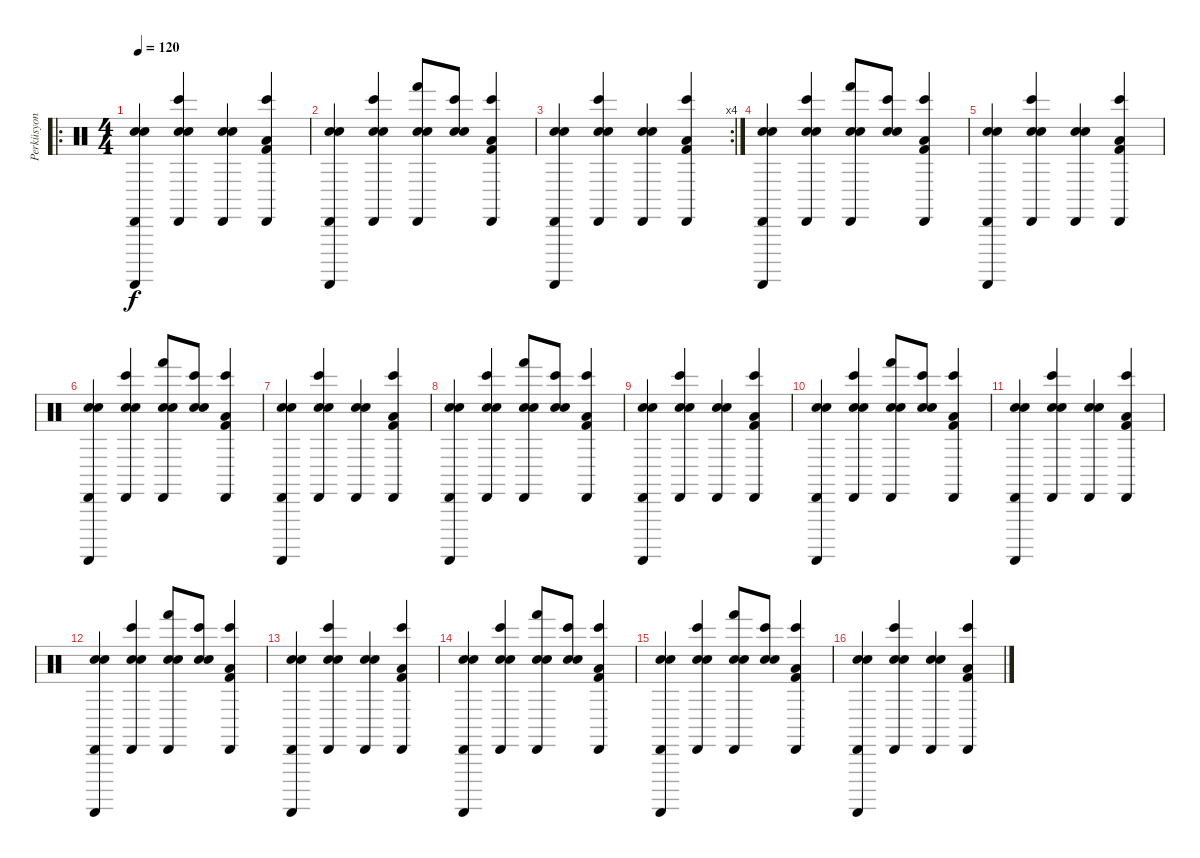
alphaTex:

\track ("Perküsyon" "Perküsyon") {instrument percussion}
\staff {score}
\articulation defaults
\ro
\ts (4 4)
\tempo 120
\clef neutral
\ks c
("Cabasa (hit)" "Guiro (scrap-return)" "Snare (hit) 2" "Electric Snare (hit)").4{dy f} ("Cabasa (hit)" "Bongo High (hit)" "Snare (hit) 2" "Electric Snare (hit)").4 ("Cabasa (hit)" "Snare (hit) 2" "Electric Snare (hit)").4 ("Cabasa (hit)" "Bongo High (hit)" "Kick (hit) 2" "Low Tom (hit)").4 |
("Cabasa (hit)" "Guiro (scrap-return)" "Snare (hit) 2" "Electric Snare (hit)").4 ("Cabasa (hit)" "Bongo High (hit)" "Snare (hit) 2" "Electric Snare (hit)").4 ("Cabasa (hit)" "Hand (hit)" "Snare (hit) 2" "Electric Snare (hit)").8 ("Bongo High (hit)" "Snare (hit) 2" "Electric Snare (hit)").8 ("Cabasa (hit)" "Bongo High (hit)" "Kick (hit) 2" "Low Tom (hit)").4 |
\rc 4
("Cabasa (hit)" "Guiro (scrap-return)" "Snare (hit) 2" "Electric Snare (hit)").4 ("Cabasa (hit)" "Bongo High (hit)" "Snare (hit) 2" "Electric Snare (hit)").4 ("Cabasa (hit)" "Snare (hit) 2" "Electric Snare (hit)").4 ("Cabasa (hit)" "Bongo High (hit)" "Kick (hit) 2" "Low Tom (hit)").4 |
("Cabasa (hit)" "Guiro (scrap-return)" "Snare (hit) 2" "Electric Snare (hit)").4 ("Cabasa (hit)" "Bongo High (hit)" "Snare (hit) 2" "Electric Snare (hit)").4 ("Cabasa (hit)" "Hand (hit)" "Snare (hit) 2" "Electric Snare (hit)").8 ("Bongo High (hit)" "Snare (hit) 2" "Electric Snare (hit)").8 ("Cabasa (hit)" "Bongo High (hit)" "Kick (hit) 2" "Low Tom (hit)").4 |
("Cabasa (hit)" "Guiro (scrap-return)" "Snare (hit) 2" "Electric Snare (hit)").4 ("Cabasa (hit)" "Bongo High (hit)" "Snare (hit) 2" "Electric Snare (hit)").4 ("Cabasa (hit)" "Snare (hit) 2" "Electric Snare (hit)").4 ("Cabasa (hit)" "Bongo High (hit)" "Kick (hit) 2" "Low Tom (hit)").4 |
("Cabasa (hit)" "Guiro (scrap-return)" "Snare (hit) 2" "Electric Snare (hit)").4 ("Cabasa (hit)" "Bongo High (hit)" "Snare (hit) 2" "Electric Snare (hit)").4 ("Cabasa (hit)" "Hand (hit)" "Snare (hit) 2" "Electric Snare (hit)").8 ("Bongo High (hit)" "Snare (hit) 2" "Electric Snare (hit)").8 ("Cabasa (hit)" "Bongo High (hit)" "Kick (hit) 2" "Low Tom (hit)").4 |
("Cabasa (hit)" "Guiro (scrap-return)" "Snare (hit) 2" "Electric Snare (hit)").4 ("Cabasa (hit)" "Bongo High (hit)" "Snare (hit) 2" "Electric Snare (hit)").4 ("Cabasa (hit)" "Snare (hit) 2" "Electric Snare (hit)").4 ("Cabasa (hit)" "Bongo High (hit)" "Kick (hit) 2" "Low Tom (hit)").4 |
("Cabasa (hit)" "Guiro (scrap-return)" "Snare (hit) 2" "Electric Snare (hit)").4 ("Cabasa (hit)" "Bongo High (hit)" "Snare (hit) 2" "Electric Snare (hit)").4 ("Cabasa (hit)" "Hand (hit)" "Snare (hit) 2" "Electric Snare (hit)").8 ("Bongo High (hit)" "Snare (hit) 2" "Electric Snare (hit)").8 ("Cabasa (hit)" "Bongo High (hit)" "Kick (hit) 2" "Low Tom (hit)").4 |
("Cabasa (hit)" "Guiro (scrap-return)" "Snare (hit) 2" "Electric Snare (hit)").4 ("Cabasa (hit)" "Bongo High (hit)" "Snare (hit) 2" "Electric Snare (hit)").4 ("Cabasa (hit)" "Snare (hit) 2" "Electric Snare (hit)").4 ("Cabasa (hit)" "Bongo High (hit)" "Kick (hit) 2" "Low Tom (hit)").4 |
("Cabasa (hit)" "Guiro (scrap-return)" "Snare (hit) 2" "Electric Snare (hit)").4 ("Cabasa (hit)" "Bongo High (hit)" "Snare (hit) 2" "Electric Snare (hit)").4 ("Cabasa (hit)" "Hand (hit)" "Snare (hit) 2" "Electric Snare (hit)").8 ("Bongo High (hit)" "Snare (hit) 2" "Electric Snare (hit)").8 ("Cabasa (hit)" "Bongo High (hit)" "Kick (hit) 2" "Low Tom (hit)").4 |
("Cabasa (hit)" "Guiro (scrap-return)" "Snare (hit) 2" "Electric Snare (hit)").4 ("Cabasa (hit)" "Bongo High (hit)" "Snare (hit) 2" "Electric Snare (hit)").4 ("Cabasa (hit)" "Snare (hit) 2" "Electric Snare (hit)").4 ("Cabasa (hit)" "Bongo High (hit)" "Kick (hit) 2" "Low Tom (hit)").4 |
("Cabasa (hit)" "Guiro (scrap-return)" "Snare (hit) 2" "Electric Snare (hit)").4 ("Cabasa (hit)" "Bongo High (hit)" "Snare (hit) 2" "Electric Snare (hit)").4 ("Cabasa (hit)" "Hand (hit)" "Snare (hit) 2" "Electric Snare (hit)").8 ("Bongo High (hit)" "Snare (hit) 2" "Electric Snare (hit)").8 ("Cabasa (hit)" "Bongo High (hit)" "Kick (hit) 2" "Low Tom (hit)").4 |
("Cabasa (hit)" "Guiro (scrap-return)" "Snare (hit) 2" "Electric Snare (hit)").4 ("Cabasa (hit)" "Bongo High (hit)" "Snare (hit) 2" "Electric Snare (hit)").4 ("Cabasa (hit)" "Snare (hit) 2" "Electric Snare (hit)").4 ("Cabasa (hit)" "Bongo High (hit)" "Kick (hit) 2" "Low Tom (hit)").4 |
("Cabasa (hit)" "Guiro (scrap-return)" "Snare (hit) 2" "Electric Snare (hit)").4 ("Cabasa (hit)" "Bongo High (hit)" "Snare (hit) 2" "Electric Snare (hit)").4 ("Cabasa (hit)" "Hand (hit)" "Snare (hit) 2" "Electric Snare (hit)").8 ("Bongo High (hit)" "Snare (hit) 2" "Electric Snare (hit)").8 ("Cabasa (hit)" "Bongo High (hit)" "Kick (hit) 2" "Low Tom (hit)").4 |
("Cabasa (hit)" "Guiro (scrap-return)" "Snare (hit) 2" "Electric Snare (hit)").4 ("Cabasa (hit)" "Bongo High (hit)" "Snare (hit) 2" "Electric Snare (hit)").4 ("Cabasa (hit)" "Hand (hit)" "Snare (hit) 2" "Electric Snare (hit)").8 ("Bongo High (hit)" "Snare (hit) 2" "Electric Snare (hit)").8 ("Cabasa (hit)" "Bongo High (hit)" "Kick (hit) 2" "Low Tom (hit)").4 |
("Cabasa (hit)" "Guiro (scrap-return)" "Snare (hit) 2" "Electric Snare (hit)").4 ("Cabasa (hit)" "Bongo High (hit)" "Snare (hit) 2" "Electric Snare (hit)").4 ("Cabasa (hit)" "Snare (hit) 2" "Electric Snare (hit)").4 ("Cabasa (hit)" "Bongo High (hit)" "Kick (hit) 2" "Low Tom (hit)").4
